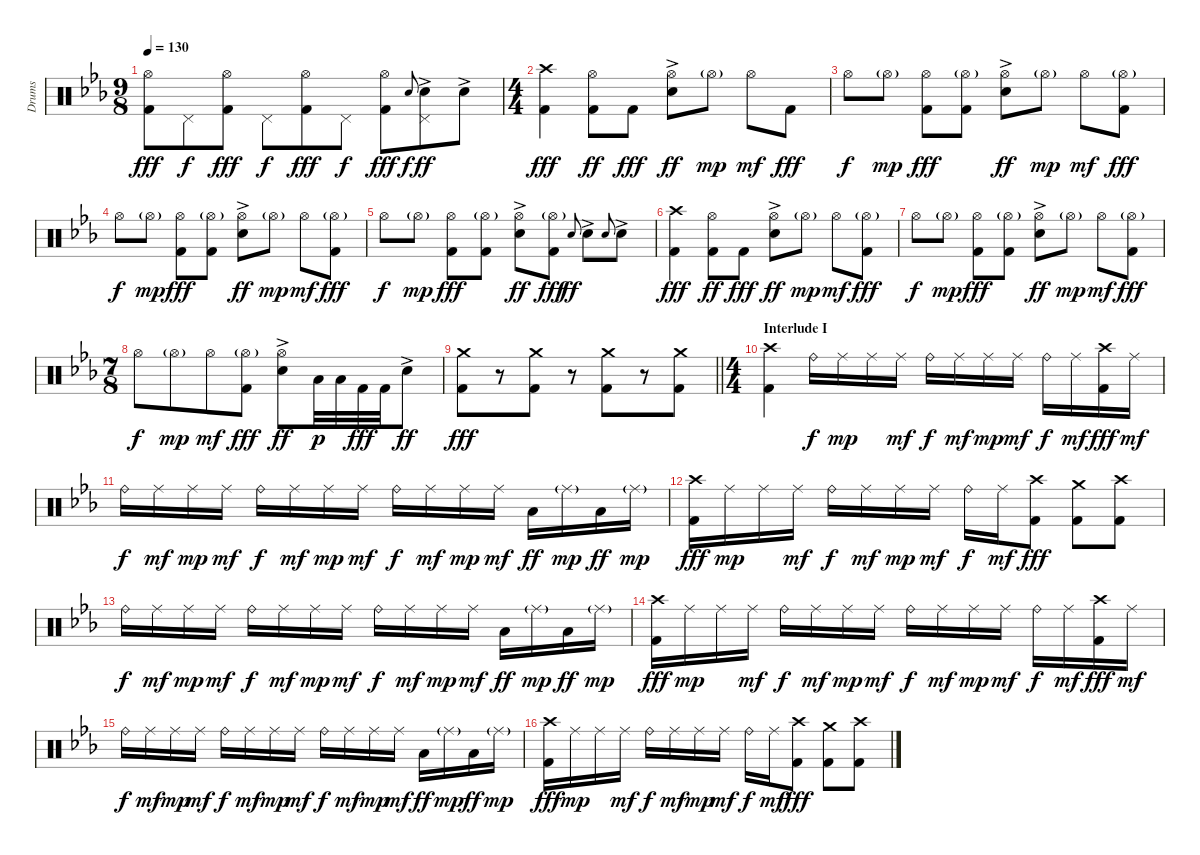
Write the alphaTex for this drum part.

\track ("Drums" "Drums") {instrument percussion}
\staff {score}
\articulation defaults
\ts (9 8)
\tempo 130
\clef neutral
\ks cminor
("Hi-Hat (open)" "Kick (hit) 2").8{dy fff} "Pedal Hi-Hat (hit)".8{dy f} ("Hi-Hat (open)" "Kick (hit) 2").8{dy fff} "Pedal Hi-Hat (hit)".8{dy f} ("Hi-Hat (open)" "Kick (hit) 2").8{dy fff} "Pedal Hi-Hat (hit)".8{dy f} ("Hi-Hat (open)" "Kick (hit) 2").8{dy fff} "Electric Snare (hit)".8{gr onbeat dy f} ("Pedal Hi-Hat (hit)" "Electric Snare (hit)"{ac}).8{dy ff} "Electric Snare (hit)"{ac}.8 |
\ts (4 4)
("Crash high (hit)" "Kick (hit) 2").4{dy fff} ("Hi-Hat (open)" "Kick (hit) 2").8{dy ff} "Kick (hit) 2".8{dy fff} ("Hi-Hat (open)" "Electric Snare (hit)"{ac}).8{dy ff} "Hi-Hat (open)"{g}.8{dy mp} "Hi-Hat (open)".8{dy mf} "Kick (hit) 2".8{dy fff} |
"Hi-Hat (open)".8{dy f} "Hi-Hat (open)"{g}.8{dy mp} ("Hi-Hat (open)" "Kick (hit) 2").8{dy fff} ("Hi-Hat (open)"{g} "Kick (hit) 2").8 ("Hi-Hat (open)" "Electric Snare (hit)"{ac}).8{dy ff} "Hi-Hat (open)"{g}.8{dy mp} "Hi-Hat (open)".8{dy mf} ("Hi-Hat (open)"{g} "Kick (hit) 2").8{dy fff} |
"Hi-Hat (open)".8{dy f} "Hi-Hat (open)"{g}.8{dy mp} ("Hi-Hat (open)" "Kick (hit) 2").8{dy fff} ("Hi-Hat (open)"{g} "Kick (hit) 2").8 ("Hi-Hat (open)" "Electric Snare (hit)"{ac}).8{dy ff} "Hi-Hat (open)"{g}.8{dy mp} "Hi-Hat (open)".8{dy mf} ("Hi-Hat (open)"{g} "Kick (hit) 2").8{dy fff} |
"Hi-Hat (open)".8{dy f} "Hi-Hat (open)"{g}.8{dy mp} ("Hi-Hat (open)" "Kick (hit) 2").8{dy fff} ("Hi-Hat (open)"{g} "Kick (hit) 2").8 ("Hi-Hat (open)" "Electric Snare (hit)"{ac}).8{dy ff} ("Hi-Hat (open)"{g} "Kick (hit) 2").8{dy fff} "Electric Snare (hit)".8{gr onbeat dy ff} "Electric Snare (hit)"{ac}.8 "Electric Snare (hit)".8{gr onbeat} "Electric Snare (hit)"{ac}.8 |
("Crash high (hit)" "Kick (hit) 2").4{dy fff} ("Hi-Hat (open)" "Kick (hit) 2").8{dy ff} "Kick (hit) 2".8{dy fff} ("Hi-Hat (open)" "Electric Snare (hit)"{ac}).8{dy ff} "Hi-Hat (open)"{g}.8{dy mp} "Hi-Hat (open)".8{dy mf} ("Hi-Hat (open)"{g} "Kick (hit) 2").8{dy fff} |
"Hi-Hat (open)".8{dy f} "Hi-Hat (open)"{g}.8{dy mp} ("Hi-Hat (open)" "Kick (hit) 2").8{dy fff} ("Hi-Hat (open)"{g} "Kick (hit) 2").8 ("Hi-Hat (open)" "Electric Snare (hit)"{ac}).8{dy ff} "Hi-Hat (open)"{g}.8{dy mp} "Hi-Hat (open)".8{dy mf} ("Hi-Hat (open)"{g} "Kick (hit) 2").8{dy fff} |
\ts (7 8)
"Hi-Hat (open)".8{dy f} "Hi-Hat (open)"{g}.8{dy mp} "Hi-Hat (open)".8{dy mf} ("Hi-Hat (open)"{g} "Kick (hit) 2").8{dy fff} ("Hi-Hat (open)" "Electric Snare (hit)"{ac}).8{dy ff} "Low Tom (hit)".32{dy p} "Low Tom (hit)".32 "Kick (hit) 2".32{dy fff} "Kick (hit) 2".32 "Electric Snare (hit)"{ac}.8{dy ff} |
\barLineRight lightlight
("Crash medium (hit)" "Kick (hit) 2").8{dy fff} r.8{volume 2} ("Crash medium (hit)" "Kick (hit) 2").8{volume 16} r.8{volume 2} ("Crash medium (hit)" "Kick (hit) 2").8{volume 16} r.8{volume 2} ("Crash medium (hit)" "Kick (hit) 2").8{volume 16} |
\ts (4 4)
\section ("" "Interlude I")
("Crash high (hit)" "Kick (hit) 2").4 "Ride (bell)".16{dy f} "Ride (middle)".16{dy mp} "Ride (middle)".16 "Ride (middle)".16{dy mf} "Ride (bell)".16{dy f} "Ride (middle)".16{dy mf} "Ride (middle)".16{dy mp} "Ride (middle)".16{dy mf} "Ride (bell)".16{dy f} "Ride (middle)".16{dy mf} ("Crash high (hit)" "Kick (hit) 2").16{dy fff} "Ride (middle)".16{dy mf} |
"Ride (bell)".16{dy f} "Ride (middle)".16{dy mf} "Ride (middle)".16{dy mp} "Ride (middle)".16{dy mf} "Ride (bell)".16{dy f} "Ride (middle)".16{dy mf} "Ride (middle)".16{dy mp} "Ride (middle)".16{dy mf} "Ride (bell)".16{dy f} "Ride (middle)".16{dy mf} "Ride (middle)".16{dy mp} "Ride (middle)".16{dy mf} "Low Floor Tom (hit)".16{dy ff} "Ride (middle)"{g}.16{dy mp} "Low Floor Tom (hit)".16{dy ff} "Ride (middle)"{g}.16{dy mp} |
("Crash high (hit)" "Kick (hit) 2").16{dy fff} "Ride (middle)".16{dy mp} "Ride (middle)".16 "Ride (middle)".16{dy mf} "Ride (bell)".16{dy f} "Ride (middle)".16{dy mf} "Ride (middle)".16{dy mp} "Ride (middle)".16{dy mf} "Ride (bell)".16{dy f} "Ride (middle)".16{dy mf} ("Crash high (hit)" "Kick (hit) 2").8{dy fff} ("Crash medium (hit)" "Kick (hit) 2").8 ("Crash high (hit)" "Kick (hit) 2").8 |
"Ride (bell)".16{dy f} "Ride (middle)".16{dy mf} "Ride (middle)".16{dy mp} "Ride (middle)".16{dy mf} "Ride (bell)".16{dy f} "Ride (middle)".16{dy mf} "Ride (middle)".16{dy mp} "Ride (middle)".16{dy mf} "Ride (bell)".16{dy f} "Ride (middle)".16{dy mf} "Ride (middle)".16{dy mp} "Ride (middle)".16{dy mf} "Low Floor Tom (hit)".16{dy ff} "Ride (middle)"{g}.16{dy mp} "Low Floor Tom (hit)".16{dy ff} "Ride (middle)"{g}.16{dy mp} |
("Crash high (hit)" "Kick (hit) 2").16{dy fff} "Ride (middle)".16{dy mp} "Ride (middle)".16 "Ride (middle)".16{dy mf} "Ride (bell)".16{dy f} "Ride (middle)".16{dy mf} "Ride (middle)".16{dy mp} "Ride (middle)".16{dy mf} "Ride (bell)".16{dy f} "Ride (middle)".16{dy mf} "Ride (middle)".16{dy mp} "Ride (middle)".16{dy mf} "Ride (bell)".16{dy f} "Ride (middle)".16{dy mf} ("Crash high (hit)" "Kick (hit) 2").16{dy fff} "Ride (middle)".16{dy mf} |
"Ride (bell)".16{dy f} "Ride (middle)".16{dy mf} "Ride (middle)".16{dy mp} "Ride (middle)".16{dy mf} "Ride (bell)".16{dy f} "Ride (middle)".16{dy mf} "Ride (middle)".16{dy mp} "Ride (middle)".16{dy mf} "Ride (bell)".16{dy f} "Ride (middle)".16{dy mf} "Ride (middle)".16{dy mp} "Ride (middle)".16{dy mf} "Low Floor Tom (hit)".16{dy ff} "Ride (middle)"{g}.16{dy mp} "Low Floor Tom (hit)".16{dy ff} "Ride (middle)"{g}.16{dy mp} |
("Crash high (hit)" "Kick (hit) 2").16{dy fff} "Ride (middle)".16{dy mp} "Ride (middle)".16 "Ride (middle)".16{dy mf} "Ride (bell)".16{dy f} "Ride (middle)".16{dy mf} "Ride (middle)".16{dy mp} "Ride (middle)".16{dy mf} "Ride (bell)".16{dy f} "Ride (middle)".16{dy mf} ("Crash high (hit)" "Kick (hit) 2").8{dy fff} ("Crash medium (hit)" "Kick (hit) 2").8 ("Crash high (hit)" "Kick (hit) 2").8
